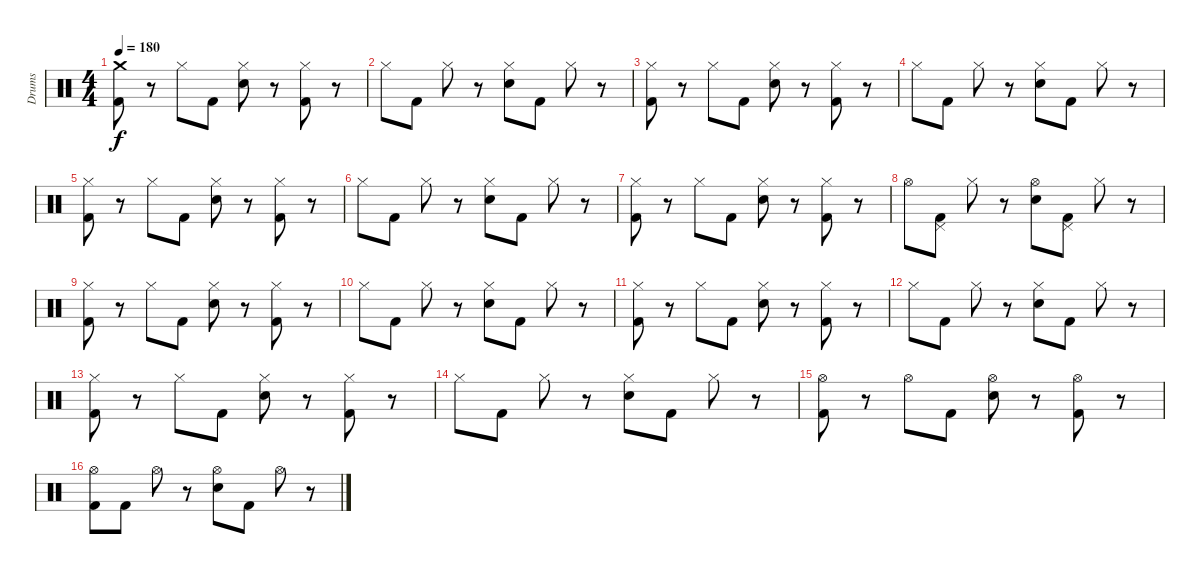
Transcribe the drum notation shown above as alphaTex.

\track ("Drums" "Drums") {instrument percussion}
\staff {score}
\articulation defaults
\ts (4 4)
\tempo 180
\clef neutral
\ks c
("Crash medium (hit)" "Kick (hit) 2").8{dy f} r.8 "Hi-Hat (closed)".8 "Kick (hit) 2".8 ("Hi-Hat (closed)" "Snare (hit) 2").8 r.8 ("Hi-Hat (closed)" "Kick (hit) 2").8 r.8 |
"Hi-Hat (closed)".8 "Kick (hit) 2".8 "Hi-Hat (closed)".8 r.8 ("Hi-Hat (closed)" "Snare (hit) 2").8 "Kick (hit) 2".8 "Hi-Hat (closed)".8 r.8 |
("Hi-Hat (closed)" "Kick (hit) 2").8 r.8 "Hi-Hat (closed)".8 "Kick (hit) 2".8 ("Hi-Hat (closed)" "Snare (hit) 2").8 r.8 ("Hi-Hat (closed)" "Kick (hit) 2").8 r.8 |
"Hi-Hat (closed)".8 "Kick (hit) 2".8 "Hi-Hat (closed)".8 r.8 ("Hi-Hat (closed)" "Snare (hit) 2").8 "Kick (hit) 2".8 "Hi-Hat (closed)".8 r.8 |
("Hi-Hat (closed)" "Kick (hit) 2").8 r.8 "Hi-Hat (closed)".8 "Kick (hit) 2".8 ("Hi-Hat (closed)" "Snare (hit) 2").8 r.8 ("Hi-Hat (closed)" "Kick (hit) 2").8 r.8 |
"Hi-Hat (closed)".8 "Kick (hit) 2".8 "Hi-Hat (closed)".8 r.8 ("Hi-Hat (closed)" "Snare (hit) 2").8 "Kick (hit) 2".8 "Hi-Hat (closed)".8 r.8 |
("Hi-Hat (closed)" "Kick (hit) 2").8 r.8 "Hi-Hat (closed)".8 "Kick (hit) 2".8 ("Hi-Hat (closed)" "Snare (hit) 2").8 r.8 ("Hi-Hat (closed)" "Kick (hit) 2").8 r.8 |
"Hi-Hat (open)".8 ("Pedal Hi-Hat (hit)" "Kick (hit) 2").8 "Hi-Hat (closed)".8 r.8 ("Hi-Hat (open)" "Snare (hit) 2").8 ("Pedal Hi-Hat (hit)" "Kick (hit) 2").8 "Hi-Hat (closed)".8 r.8 |
("Hi-Hat (closed)" "Kick (hit) 2").8 r.8 "Hi-Hat (closed)".8 "Kick (hit) 2".8 ("Hi-Hat (closed)" "Snare (hit) 2").8 r.8 ("Hi-Hat (closed)" "Kick (hit) 2").8 r.8 |
"Hi-Hat (closed)".8 "Kick (hit) 2".8 "Hi-Hat (closed)".8 r.8 ("Hi-Hat (closed)" "Snare (hit) 2").8 "Kick (hit) 2".8 "Hi-Hat (closed)".8 r.8 |
("Hi-Hat (closed)" "Kick (hit) 2").8 r.8 "Hi-Hat (closed)".8 "Kick (hit) 2".8 ("Hi-Hat (closed)" "Snare (hit) 2").8 r.8 ("Hi-Hat (closed)" "Kick (hit) 2").8 r.8 |
"Hi-Hat (closed)".8 "Kick (hit) 2".8 "Hi-Hat (closed)".8 r.8 ("Hi-Hat (closed)" "Snare (hit) 2").8 "Kick (hit) 2".8 "Hi-Hat (closed)".8 r.8 |
("Hi-Hat (closed)" "Kick (hit) 2").8 r.8 "Hi-Hat (closed)".8 "Kick (hit) 2".8 ("Hi-Hat (closed)" "Snare (hit) 2").8 r.8 ("Hi-Hat (closed)" "Kick (hit) 2").8 r.8 |
"Hi-Hat (closed)".8 "Kick (hit) 2".8 "Hi-Hat (closed)".8 r.8 ("Hi-Hat (closed)" "Snare (hit) 2").8 "Kick (hit) 2".8 "Hi-Hat (closed)".8 r.8 |
("Hi-Hat (open)" "Kick (hit) 2").8 r.8 "Hi-Hat (open)".8 "Kick (hit) 2".8 ("Hi-Hat (open)" "Snare (hit) 2").8 r.8 ("Hi-Hat (open)" "Kick (hit) 2").8 r.8 |
("Hi-Hat (open)" "Kick (hit) 2").8 "Kick (hit) 2".8 "Hi-Hat (open)".8 r.8 ("Hi-Hat (open)" "Snare (hit) 2").8 "Kick (hit) 2".8 "Hi-Hat (open)".8 r.8
